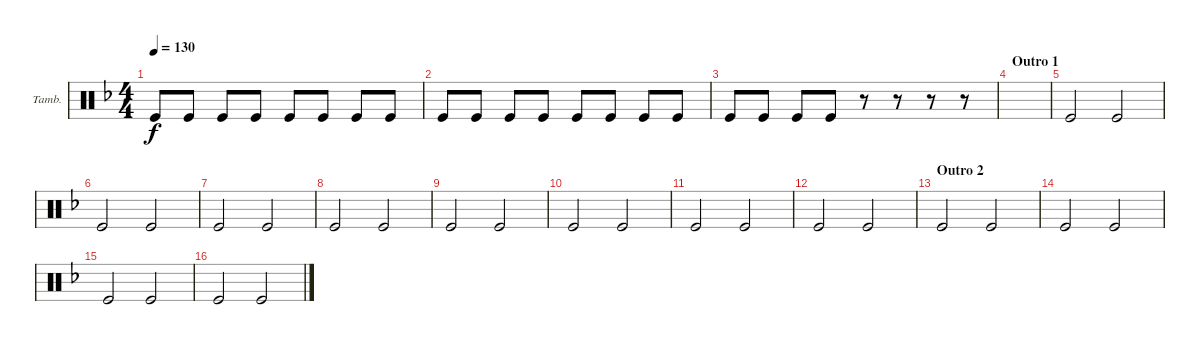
\defaultSystemsLayout 4
\bracketExtendMode groupsimilarinstruments
\firstSystemTrackNameOrientation horizontal
\otherSystemsTrackNameOrientation horizontal
\track ("Tambourine" "Tamb.") {instrument percussion}
\staff {score}
\articulation defaults
\ts (4 4)
\tempo 130
\clef neutral
\ks dminor "Kick (hit)".8{dy f} "Kick (hit)".8 "Kick (hit)".8 "Kick (hit)".8 "Kick (hit)".8 "Kick (hit)".8 "Kick (hit)".8 "Kick (hit)".8
|
"Kick (hit)".8 "Kick (hit)".8 "Kick (hit)".8 "Kick (hit)".8 "Kick (hit)".8 "Kick (hit)".8 "Kick (hit)".8 "Kick (hit)".8 |
"Kick (hit)".8 "Kick (hit)".8 "Kick (hit)".8 "Kick (hit)".8 r.8 r.8 r.8 r.8 |
\section ("" "Outro 1")
|
"Kick (hit)".2 "Kick (hit)".2 |
"Kick (hit)".2 "Kick (hit)".2 |
"Kick (hit)".2 "Kick (hit)".2 |
"Kick (hit)".2 "Kick (hit)".2 |
"Kick (hit)".2 "Kick (hit)".2 |
"Kick (hit)".2 "Kick (hit)".2 |
"Kick (hit)".2 "Kick (hit)".2 |
"Kick (hit)".2 "Kick (hit)".2 |
\section ("" "Outro 2")
"Kick (hit)".2 "Kick (hit)".2 |
"Kick (hit)".2 "Kick (hit)".2 |
"Kick (hit)".2 "Kick (hit)".2 |
"Kick (hit)".2 "Kick (hit)".2
